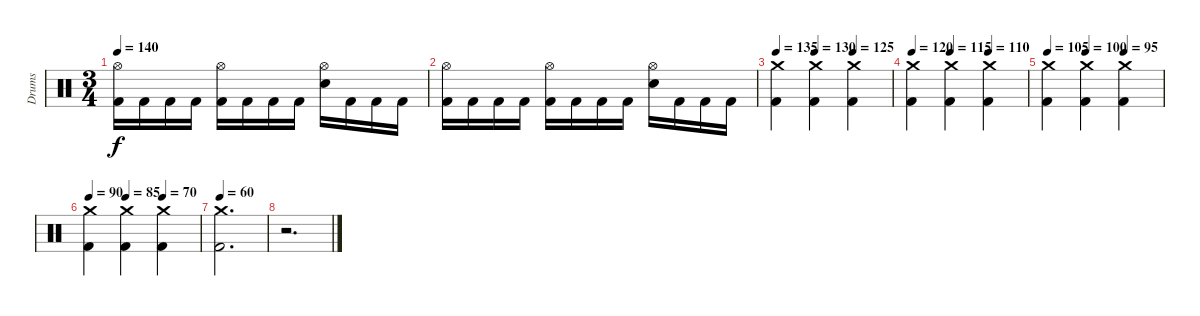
\track ("Drums" "Drums") {instrument percussion}
\staff {score}
\articulation defaults
\ts (3 4)
\tempo 140
\clef neutral
\ks c
("Kick (hit) 2" "Hi-Hat (open)").16{dy f} "Kick (hit) 2".16 "Kick (hit) 2".16 "Kick (hit) 2".16 ("Kick (hit) 2" "Hi-Hat (open)").16 "Kick (hit) 2".16 "Kick (hit) 2".16 "Kick (hit) 2".16 ("Electric Snare (hit)" "Hi-Hat (open)").16 "Kick (hit) 2".16 "Kick (hit) 2".16 "Kick (hit) 2".16 |
("Kick (hit) 2" "Hi-Hat (open)").16 "Kick (hit) 2".16 "Kick (hit) 2".16 "Kick (hit) 2".16 ("Kick (hit) 2" "Hi-Hat (open)").16 "Kick (hit) 2".16 "Kick (hit) 2".16 "Kick (hit) 2".16 ("Electric Snare (hit)" "Hi-Hat (open)").16 "Kick (hit) 2".16 "Kick (hit) 2".16 "Kick (hit) 2".16 |
\tempo 135
\tempo (130 0.3333333333333333)
\tempo (125 0.6666666666666666)
("Kick (hit) 2" "Crash medium (hit)").4 ("Kick (hit) 2" "Crash medium (hit)").4 ("Kick (hit) 2" "Crash medium (hit)").4 |
\tempo 120
\tempo (115 0.3333333333333333)
\tempo (110 0.6666666666666666)
("Kick (hit) 2" "Crash medium (hit)").4 ("Kick (hit) 2" "Crash medium (hit)").4 ("Kick (hit) 2" "Crash medium (hit)").4 |
\tempo 105
\tempo (100 0.3333333333333333)
\tempo (95 0.6666666666666666)
("Kick (hit) 2" "Crash medium (hit)").4 ("Kick (hit) 2" "Crash medium (hit)").4 ("Kick (hit) 2" "Crash medium (hit)").4 |
\tempo 90
\tempo (85 0.3333333333333333)
\tempo (70 0.6666666666666666)
("Kick (hit) 2" "Crash medium (hit)").4 ("Kick (hit) 2" "Crash medium (hit)").4 ("Kick (hit) 2" "Crash medium (hit)").4 |
\tempo 60
("Kick (hit) 2" "Crash medium (hit)").2{d} |
r.2{d}
